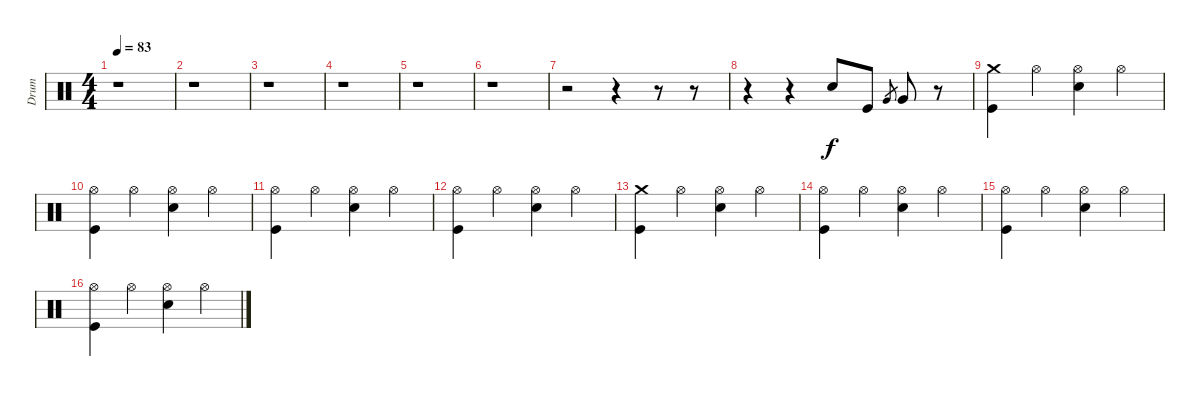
\track ("Drum" "Drum") {instrument percussion}
\staff {score}
\articulation defaults
\ts (4 4)
\tempo 83
\clef neutral
\ks c
r.1{dy f} |
r.1 |
r.1 |
r.1 |
r.1 |
r.1 |
r.2 r.4 r.8 r.8 |
r.4 r.4 "Electric Snare (hit)".8 "Kick (hit)".8 "Very Low Tom (hit)".8{gr} "Very Low Tom (hit)".8 r.8 |
("Kick (hit)" "Crash medium (hit)").4 "Hi-Hat (open)".4 ("Electric Snare (hit)" "Hi-Hat (open)").4 "Hi-Hat (open)".4 |
("Kick (hit)" "Hi-Hat (open)").4 "Hi-Hat (open)".4 ("Electric Snare (hit)" "Hi-Hat (open)").4 "Hi-Hat (open)".4 |
("Kick (hit)" "Hi-Hat (open)").4 "Hi-Hat (open)".4 ("Electric Snare (hit)" "Hi-Hat (open)").4 "Hi-Hat (open)".4 |
("Kick (hit)" "Hi-Hat (open)").4 "Hi-Hat (open)".4 ("Electric Snare (hit)" "Hi-Hat (open)").4 "Hi-Hat (open)".4 |
("Kick (hit)" "Crash medium (hit)").4 "Hi-Hat (open)".4 ("Electric Snare (hit)" "Hi-Hat (open)").4 "Hi-Hat (open)".4 |
("Kick (hit)" "Hi-Hat (open)").4 "Hi-Hat (open)".4 ("Electric Snare (hit)" "Hi-Hat (open)").4 "Hi-Hat (open)".4 |
("Kick (hit)" "Hi-Hat (open)").4 "Hi-Hat (open)".4 ("Electric Snare (hit)" "Hi-Hat (open)").4 "Hi-Hat (open)".4 |
("Kick (hit)" "Hi-Hat (open)").4 "Hi-Hat (open)".4 ("Electric Snare (hit)" "Hi-Hat (open)").4 "Hi-Hat (open)".4
